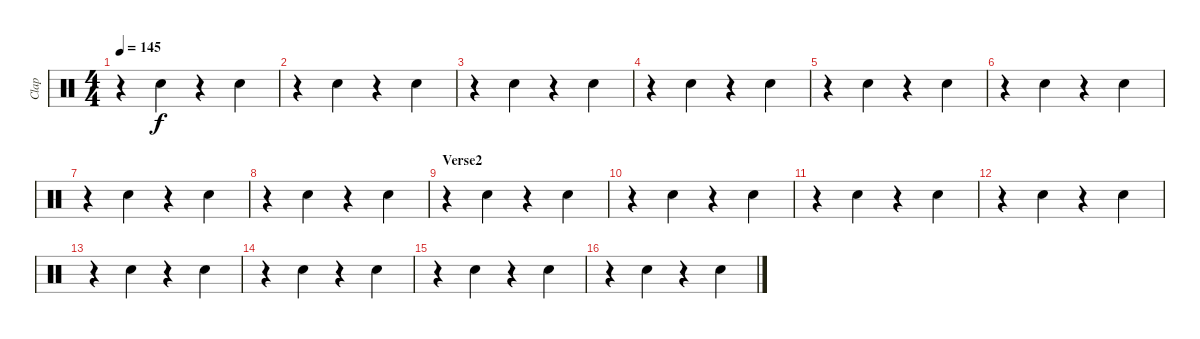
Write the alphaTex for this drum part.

\track ("Clap" "Clap") {instrument percussion}
\staff {score}
\articulation defaults
\ts (4 4)
\tempo 145
\clef neutral
\ks c
r.4{dy f} "Hand Clap (hit)".4 r.4 "Hand Clap (hit)".4 |
r.4 "Hand Clap (hit)".4 r.4 "Hand Clap (hit)".4 |
r.4 "Hand Clap (hit)".4 r.4 "Hand Clap (hit)".4 |
r.4 "Hand Clap (hit)".4 r.4 "Hand Clap (hit)".4 |
r.4 "Hand Clap (hit)".4 r.4 "Hand Clap (hit)".4 |
r.4 "Hand Clap (hit)".4 r.4 "Hand Clap (hit)".4 |
r.4 "Hand Clap (hit)".4 r.4 "Hand Clap (hit)".4 |
r.4 "Hand Clap (hit)".4 r.4 "Hand Clap (hit)".4 |
\section ("" "Verse2")
r.4 "Hand Clap (hit)".4 r.4 "Hand Clap (hit)".4 |
r.4 "Hand Clap (hit)".4 r.4 "Hand Clap (hit)".4 |
r.4 "Hand Clap (hit)".4 r.4 "Hand Clap (hit)".4 |
r.4 "Hand Clap (hit)".4 r.4 "Hand Clap (hit)".4 |
r.4 "Hand Clap (hit)".4 r.4 "Hand Clap (hit)".4 |
r.4 "Hand Clap (hit)".4 r.4 "Hand Clap (hit)".4 |
r.4 "Hand Clap (hit)".4 r.4 "Hand Clap (hit)".4 |
r.4 "Hand Clap (hit)".4 r.4 "Hand Clap (hit)".4
